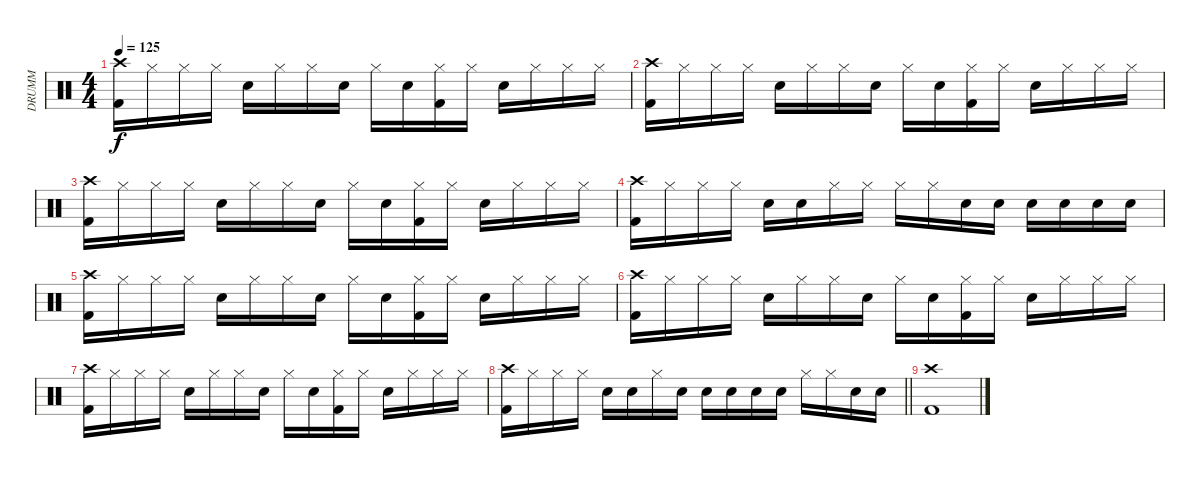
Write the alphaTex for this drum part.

\track ("DRUMM" "DRUMM") {instrument percussion}
\staff {score}
\articulation defaults
\ts (4 4)
\tempo 125
\clef neutral
\ks c
("Kick (hit) 2" "Crash high (hit)").16{dy f} "Hi-Hat (closed)".16 "Hi-Hat (closed)".16 "Hi-Hat (closed)".16 "Snare (hit) 2".16 "Hi-Hat (closed)".16 "Hi-Hat (closed)".16 "Snare (hit) 2".16 "Hi-Hat (closed)".16 "Snare (hit) 2".16 ("Kick (hit) 2" "Hi-Hat (closed)").16 "Hi-Hat (closed)".16 "Snare (hit) 2".16 "Hi-Hat (closed)".16 "Hi-Hat (closed)".16 "Hi-Hat (closed)".16 |
("Kick (hit) 2" "Crash high (hit)").16 "Hi-Hat (closed)".16 "Hi-Hat (closed)".16 "Hi-Hat (closed)".16 "Snare (hit) 2".16 "Hi-Hat (closed)".16 "Hi-Hat (closed)".16 "Snare (hit) 2".16 "Hi-Hat (closed)".16 "Snare (hit) 2".16 ("Kick (hit) 2" "Hi-Hat (closed)").16 "Hi-Hat (closed)".16 "Snare (hit) 2".16 "Hi-Hat (closed)".16 "Hi-Hat (closed)".16 "Hi-Hat (closed)".16 |
("Kick (hit) 2" "Crash high (hit)").16 "Hi-Hat (closed)".16 "Hi-Hat (closed)".16 "Hi-Hat (closed)".16 "Snare (hit) 2".16 "Hi-Hat (closed)".16 "Hi-Hat (closed)".16 "Snare (hit) 2".16 "Hi-Hat (closed)".16 "Snare (hit) 2".16 ("Kick (hit) 2" "Hi-Hat (closed)").16 "Hi-Hat (closed)".16 "Snare (hit) 2".16 "Hi-Hat (closed)".16 "Hi-Hat (closed)".16 "Hi-Hat (closed)".16 |
("Kick (hit) 2" "Crash high (hit)").16 "Hi-Hat (closed)".16 "Hi-Hat (closed)".16 "Hi-Hat (closed)".16 "Snare (hit) 2".16 "Snare (hit) 2".16 "Hi-Hat (closed)".16 "Hi-Hat (closed)".16 "Hi-Hat (closed)".16 "Hi-Hat (closed)".16 "Snare (hit) 2".16 "Snare (hit) 2".16 "Snare (hit) 2".16 "Snare (hit) 2".16 "Snare (hit) 2".16 "Snare (hit) 2".16 |
("Kick (hit) 2" "Crash high (hit)").16 "Hi-Hat (closed)".16 "Hi-Hat (closed)".16 "Hi-Hat (closed)".16 "Snare (hit) 2".16 "Hi-Hat (closed)".16 "Hi-Hat (closed)".16 "Snare (hit) 2".16 "Hi-Hat (closed)".16 "Snare (hit) 2".16 ("Kick (hit) 2" "Hi-Hat (closed)").16 "Hi-Hat (closed)".16 "Snare (hit) 2".16 "Hi-Hat (closed)".16 "Hi-Hat (closed)".16 "Hi-Hat (closed)".16 |
("Kick (hit) 2" "Crash high (hit)").16 "Hi-Hat (closed)".16 "Hi-Hat (closed)".16 "Hi-Hat (closed)".16 "Snare (hit) 2".16 "Hi-Hat (closed)".16 "Hi-Hat (closed)".16 "Snare (hit) 2".16 "Hi-Hat (closed)".16 "Snare (hit) 2".16 ("Kick (hit) 2" "Hi-Hat (closed)").16 "Hi-Hat (closed)".16 "Snare (hit) 2".16 "Hi-Hat (closed)".16 "Hi-Hat (closed)".16 "Hi-Hat (closed)".16 |
("Kick (hit) 2" "Crash high (hit)").16 "Hi-Hat (closed)".16 "Hi-Hat (closed)".16 "Hi-Hat (closed)".16 "Snare (hit) 2".16 "Hi-Hat (closed)".16 "Hi-Hat (closed)".16 "Snare (hit) 2".16 "Hi-Hat (closed)".16 "Snare (hit) 2".16 ("Kick (hit) 2" "Hi-Hat (closed)").16 "Hi-Hat (closed)".16 "Snare (hit) 2".16 "Hi-Hat (closed)".16 "Hi-Hat (closed)".16 "Hi-Hat (closed)".16 |
\barLineRight lightlight
("Kick (hit) 2" "Crash high (hit)").16 "Hi-Hat (closed)".16 "Hi-Hat (closed)".16 "Hi-Hat (closed)".16 "Snare (hit) 2".16 "Snare (hit) 2".16 "Hi-Hat (closed)".16 "Snare (hit) 2".16 "Snare (hit) 2".16 "Snare (hit) 2".16 "Snare (hit) 2".16 "Snare (hit) 2".16 "Hi-Hat (closed)".16 "Hi-Hat (closed)".16 "Snare (hit) 2".16 "Snare (hit) 2".16 |
("Kick (hit) 2" "Crash high (hit)").1
